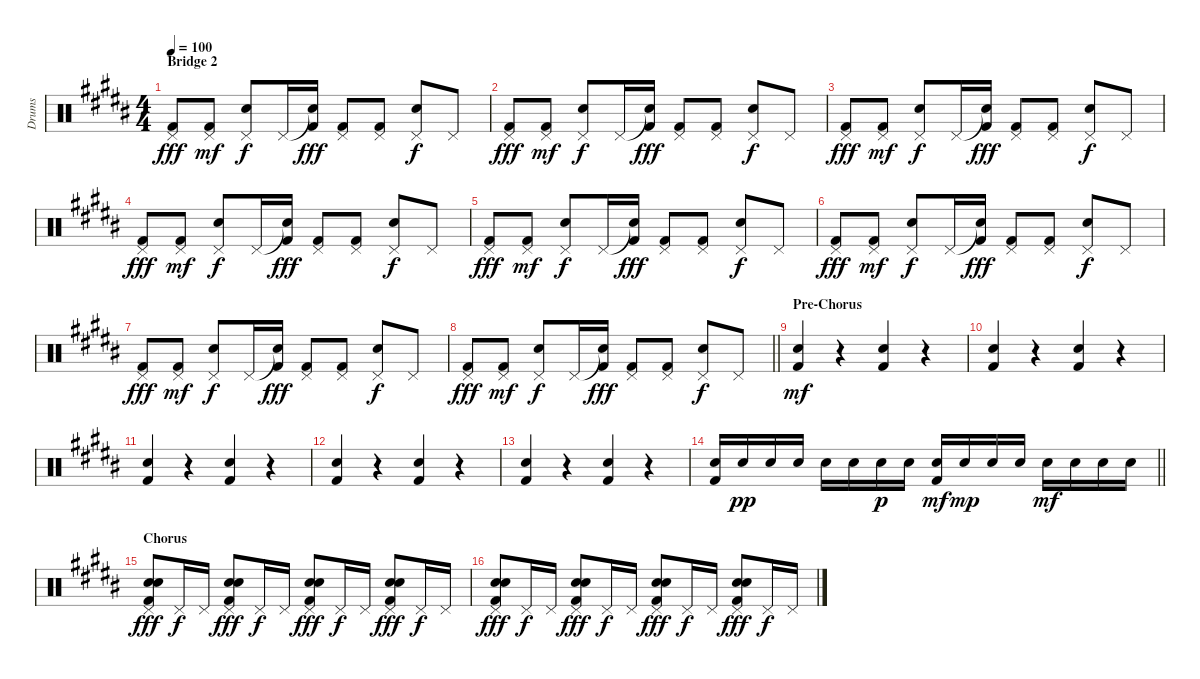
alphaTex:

\track ("Drums" "Drums") {instrument percussion}
\staff {score}
\articulation defaults
\ts (4 4)
\section ("" "Bridge 2")
\tempo 100
\clef neutral
\ks b
("Pedal Hi-Hat (hit)" "Kick (hit) 2").8{dy fff} ("Pedal Hi-Hat (hit)" "Kick (hit) 2").8{dy mf} ("Pedal Hi-Hat (hit)" "Snare (hit) 2").8{dy f} "Pedal Hi-Hat (hit)".16 ("Snare (hit)"{t} "Kick (hit) 2").16{dy fff} ("Pedal Hi-Hat (hit)" "Kick (hit) 2").8 ("Pedal Hi-Hat (hit)" "Kick (hit) 2").8 ("Pedal Hi-Hat (hit)" "Snare (hit) 2").8{dy f} "Pedal Hi-Hat (hit)".8 |
("Pedal Hi-Hat (hit)" "Kick (hit) 2").8{dy fff} ("Pedal Hi-Hat (hit)" "Kick (hit) 2").8{dy mf} ("Pedal Hi-Hat (hit)" "Snare (hit) 2").8{dy f} "Pedal Hi-Hat (hit)".16 ("Snare (hit)"{t} "Kick (hit) 2").16{dy fff} ("Pedal Hi-Hat (hit)" "Kick (hit) 2").8 ("Pedal Hi-Hat (hit)" "Kick (hit) 2").8 ("Pedal Hi-Hat (hit)" "Snare (hit) 2").8{dy f} "Pedal Hi-Hat (hit)".8 |
("Pedal Hi-Hat (hit)" "Kick (hit) 2").8{dy fff} ("Pedal Hi-Hat (hit)" "Kick (hit) 2").8{dy mf} ("Pedal Hi-Hat (hit)" "Snare (hit) 2").8{dy f} "Pedal Hi-Hat (hit)".16 ("Snare (hit)"{t} "Kick (hit) 2").16{dy fff} ("Pedal Hi-Hat (hit)" "Kick (hit) 2").8 ("Pedal Hi-Hat (hit)" "Kick (hit) 2").8 ("Pedal Hi-Hat (hit)" "Snare (hit) 2").8{dy f} "Pedal Hi-Hat (hit)".8 |
("Pedal Hi-Hat (hit)" "Kick (hit) 2").8{dy fff} ("Pedal Hi-Hat (hit)" "Kick (hit) 2").8{dy mf} ("Pedal Hi-Hat (hit)" "Snare (hit) 2").8{dy f} "Pedal Hi-Hat (hit)".16 ("Snare (hit)"{t} "Kick (hit) 2").16{dy fff} ("Pedal Hi-Hat (hit)" "Kick (hit) 2").8 ("Pedal Hi-Hat (hit)" "Kick (hit) 2").8 ("Pedal Hi-Hat (hit)" "Snare (hit) 2").8{dy f} "Pedal Hi-Hat (hit)".8 |
("Pedal Hi-Hat (hit)" "Kick (hit) 2").8{dy fff} ("Pedal Hi-Hat (hit)" "Kick (hit) 2").8{dy mf} ("Pedal Hi-Hat (hit)" "Snare (hit) 2").8{dy f} "Pedal Hi-Hat (hit)".16 ("Snare (hit)"{t} "Kick (hit) 2").16{dy fff} ("Pedal Hi-Hat (hit)" "Kick (hit) 2").8 ("Pedal Hi-Hat (hit)" "Kick (hit) 2").8 ("Pedal Hi-Hat (hit)" "Snare (hit) 2").8{dy f} "Pedal Hi-Hat (hit)".8 |
("Pedal Hi-Hat (hit)" "Kick (hit) 2").8{dy fff} ("Pedal Hi-Hat (hit)" "Kick (hit) 2").8{dy mf} ("Pedal Hi-Hat (hit)" "Snare (hit) 2").8{dy f} "Pedal Hi-Hat (hit)".16 ("Snare (hit)"{t} "Kick (hit) 2").16{dy fff} ("Pedal Hi-Hat (hit)" "Kick (hit) 2").8 ("Pedal Hi-Hat (hit)" "Kick (hit) 2").8 ("Pedal Hi-Hat (hit)" "Snare (hit) 2").8{dy f} "Pedal Hi-Hat (hit)".8 |
("Pedal Hi-Hat (hit)" "Kick (hit) 2").8{dy fff} ("Pedal Hi-Hat (hit)" "Kick (hit) 2").8{dy mf} ("Pedal Hi-Hat (hit)" "Snare (hit) 2").8{dy f} "Pedal Hi-Hat (hit)".16 ("Snare (hit)"{t} "Kick (hit) 2").16{dy fff} ("Pedal Hi-Hat (hit)" "Kick (hit) 2").8 ("Pedal Hi-Hat (hit)" "Kick (hit) 2").8 ("Pedal Hi-Hat (hit)" "Snare (hit) 2").8{dy f} "Pedal Hi-Hat (hit)".8 |
\barLineRight lightlight
("Pedal Hi-Hat (hit)" "Kick (hit) 2").8{dy fff} ("Pedal Hi-Hat (hit)" "Kick (hit) 2").8{dy mf} ("Pedal Hi-Hat (hit)" "Snare (hit) 2").8{dy f} "Pedal Hi-Hat (hit)".16 ("Snare (hit)"{t} "Kick (hit) 2").16{dy fff} ("Pedal Hi-Hat (hit)" "Kick (hit) 2").8 ("Pedal Hi-Hat (hit)" "Kick (hit) 2").8 ("Pedal Hi-Hat (hit)" "Snare (hit) 2").8{dy f} "Pedal Hi-Hat (hit)".8 |
\section ("" "Pre-Chorus")
("Snare (hit) 2" "Kick (hit) 2").4{dy mf} r.4 ("Snare (hit) 2" "Kick (hit) 2").4 r.4 |
("Snare (hit) 2" "Kick (hit) 2").4 r.4 ("Snare (hit) 2" "Kick (hit) 2").4 r.4 |
("Snare (hit) 2" "Kick (hit) 2").4 r.4 ("Snare (hit) 2" "Kick (hit) 2").4 r.4 |
("Snare (hit) 2" "Kick (hit) 2").4 r.4 ("Snare (hit) 2" "Kick (hit) 2").4 r.4 |
("Snare (hit) 2" "Kick (hit) 2").4 r.4 ("Snare (hit) 2" "Kick (hit) 2").4 r.4 |
\barLineRight lightlight
("Snare (hit) 2" "Kick (hit) 2").16 "Snare (hit) 2".16{dy pp} "Snare (hit) 2".16 "Snare (hit) 2".16 "Snare (hit) 2".16 "Snare (hit) 2".16 "Snare (hit) 2".16{dy p} "Snare (hit) 2".16 ("Snare (hit) 2" "Kick (hit) 2").16{dy mf} "Snare (hit) 2".16{dy mp} "Snare (hit) 2".16 "Snare (hit) 2".16 "Snare (hit) 2".16{dy mf} "Snare (hit) 2".16 "Snare (hit) 2".16 "Snare (hit) 2".16 |
\section ("" "Chorus")
("Pedal Hi-Hat (hit)" "Snare (hit) 2" "Electric Snare (hit)" "Kick (hit) 2").8{dy fff} "Pedal Hi-Hat (hit)".16{dy f} "Pedal Hi-Hat (hit)".16 ("Pedal Hi-Hat (hit)" "Snare (hit) 2" "Electric Snare (hit)" "Kick (hit) 2").8{dy fff} "Pedal Hi-Hat (hit)".16{dy f} "Pedal Hi-Hat (hit)".16 ("Pedal Hi-Hat (hit)" "Snare (hit) 2" "Electric Snare (hit)" "Kick (hit) 2").8{dy fff} "Pedal Hi-Hat (hit)".16{dy f} "Pedal Hi-Hat (hit)".16 ("Pedal Hi-Hat (hit)" "Snare (hit) 2" "Electric Snare (hit)" "Kick (hit) 2").8{dy fff} "Pedal Hi-Hat (hit)".16{dy f} "Pedal Hi-Hat (hit)".16 |
("Pedal Hi-Hat (hit)" "Snare (hit) 2" "Electric Snare (hit)" "Kick (hit) 2").8{dy fff} "Pedal Hi-Hat (hit)".16{dy f} "Pedal Hi-Hat (hit)".16 ("Pedal Hi-Hat (hit)" "Snare (hit) 2" "Electric Snare (hit)" "Kick (hit) 2").8{dy fff} "Pedal Hi-Hat (hit)".16{dy f} "Pedal Hi-Hat (hit)".16 ("Pedal Hi-Hat (hit)" "Snare (hit) 2" "Electric Snare (hit)" "Kick (hit) 2").8{dy fff} "Pedal Hi-Hat (hit)".16{dy f} "Pedal Hi-Hat (hit)".16 ("Pedal Hi-Hat (hit)" "Snare (hit) 2" "Electric Snare (hit)" "Kick (hit) 2").8{dy fff} "Pedal Hi-Hat (hit)".16{dy f} "Pedal Hi-Hat (hit)".16
